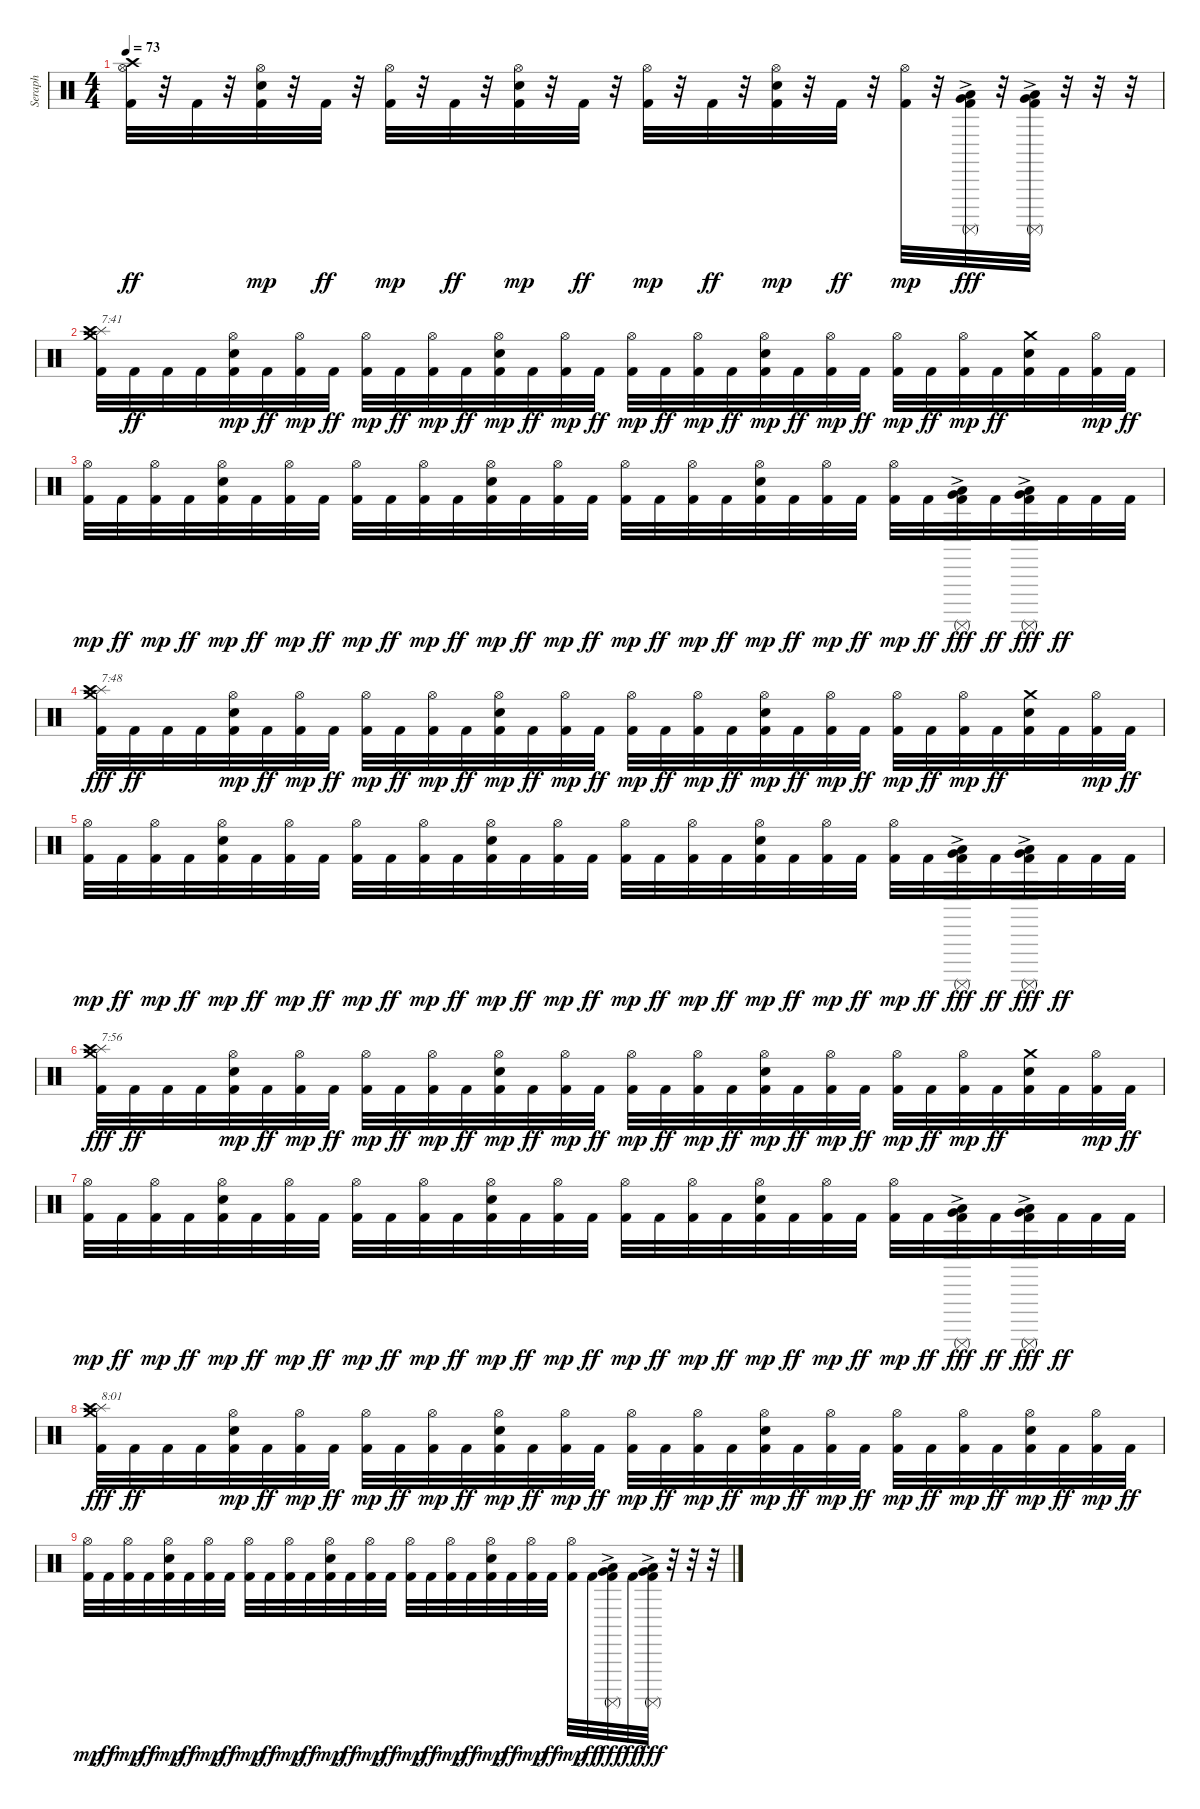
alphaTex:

\track ("Seraph" "Seraph") {instrument percussion}
\staff {score}
\articulation defaults
\ts (4 4)
\tempo 73
\clef neutral
\ks c
("Kick (hit) 2" "Hi-Hat (open)" "Crash high (hit)").32{dy ff} r.32 "Kick (hit) 2".32 r.32 ("Kick (hit) 2" "Electric Snare (hit)" "Hi-Hat (open)").32{dy mp} r.32 "Kick (hit) 2".32{dy ff} r.32 ("Kick (hit) 2" "Hi-Hat (open)").32{dy mp} r.32 "Kick (hit) 2".32{dy ff} r.32 ("Kick (hit) 2" "Electric Snare (hit)" "Hi-Hat (open)").32{dy mp} r.32 "Kick (hit) 2".32{dy ff} r.32 ("Kick (hit) 2" "Hi-Hat (open)").32{dy mp} r.32 "Kick (hit) 2".32{dy ff} r.32 ("Kick (hit) 2" "Electric Snare (hit)" "Hi-Hat (open)").32{dy mp} r.32 "Kick (hit) 2".32{dy ff} r.32 ("Kick (hit) 2" "Hi-Hat (open)").32{dy mp} r.32 ("Kick (hit) 2"{ac} "Surdo (mute)" "Low Tom (hit)"{ac} "Very Low Tom (hit)"{ac}).32{dy fff} r.32 ("Kick (hit) 2"{ac} "Surdo (mute)" "Low Tom (hit)"{ac} "Very Low Tom (hit)"{ac}).32 r.32 r.32 r.32 |
("Kick (hit) 2" "Splash (hit)" "Crash high (hit)" "Crash medium (hit)").32{txt "7:41"} "Kick (hit) 2".32{dy ff} "Kick (hit) 2".32 "Kick (hit) 2".32 ("Kick (hit) 2" "Electric Snare (hit)" "Hi-Hat (open)").32{dy mp} "Kick (hit) 2".32{dy ff} ("Kick (hit) 2" "Hi-Hat (open)").32{dy mp} "Kick (hit) 2".32{dy ff} ("Kick (hit) 2" "Hi-Hat (open)").32{dy mp} "Kick (hit) 2".32{dy ff} ("Kick (hit) 2" "Hi-Hat (open)").32{dy mp} "Kick (hit) 2".32{dy ff} ("Kick (hit) 2" "Electric Snare (hit)" "Hi-Hat (open)").32{dy mp} "Kick (hit) 2".32{dy ff} ("Kick (hit) 2" "Hi-Hat (open)").32{dy mp} "Kick (hit) 2".32{dy ff} ("Kick (hit) 2" "Hi-Hat (open)").32{dy mp} "Kick (hit) 2".32{dy ff} ("Kick (hit) 2" "Hi-Hat (open)").32{dy mp} "Kick (hit) 2".32{dy ff} ("Kick (hit) 2" "Electric Snare (hit)" "Hi-Hat (open)").32{dy mp} "Kick (hit) 2".32{dy ff} ("Kick (hit) 2" "Hi-Hat (open)").32{dy mp} "Kick (hit) 2".32{dy ff} ("Kick (hit) 2" "Hi-Hat (open)").32{dy mp} "Kick (hit) 2".32{dy ff} ("Kick (hit) 2" "Hi-Hat (open)").32{dy mp} "Kick (hit) 2".32{dy ff} ("Kick (hit) 2" "Electric Snare (hit)" "Crash medium (hit)").32 "Kick (hit) 2".32 ("Kick (hit) 2" "Hi-Hat (open)").32{dy mp} "Kick (hit) 2".32{dy ff} |
("Kick (hit) 2" "Hi-Hat (open)").32{dy mp} "Kick (hit) 2".32{dy ff} ("Kick (hit) 2" "Hi-Hat (open)").32{dy mp} "Kick (hit) 2".32{dy ff} ("Kick (hit) 2" "Electric Snare (hit)" "Hi-Hat (open)").32{dy mp} "Kick (hit) 2".32{dy ff} ("Kick (hit) 2" "Hi-Hat (open)").32{dy mp} "Kick (hit) 2".32{dy ff} ("Kick (hit) 2" "Hi-Hat (open)").32{dy mp} "Kick (hit) 2".32{dy ff} ("Kick (hit) 2" "Hi-Hat (open)").32{dy mp} "Kick (hit) 2".32{dy ff} ("Kick (hit) 2" "Electric Snare (hit)" "Hi-Hat (open)").32{dy mp} "Kick (hit) 2".32{dy ff} ("Kick (hit) 2" "Hi-Hat (open)").32{dy mp} "Kick (hit) 2".32{dy ff} ("Kick (hit) 2" "Hi-Hat (open)").32{dy mp} "Kick (hit) 2".32{dy ff} ("Kick (hit) 2" "Hi-Hat (open)").32{dy mp} "Kick (hit) 2".32{dy ff} ("Kick (hit) 2" "Electric Snare (hit)" "Hi-Hat (open)").32{dy mp} "Kick (hit) 2".32{dy ff} ("Kick (hit) 2" "Hi-Hat (open)").32{dy mp} "Kick (hit) 2".32{dy ff} ("Kick (hit) 2" "Hi-Hat (open)").32{dy mp} "Kick (hit) 2".32{dy ff} ("Kick (hit) 2"{ac} "Surdo (mute)" "Low Tom (hit)"{ac} "Very Low Tom (hit)"{ac}).32{dy fff} "Kick (hit) 2".32{dy ff} ("Kick (hit) 2"{ac} "Surdo (mute)" "Low Tom (hit)"{ac} "Very Low Tom (hit)"{ac}).32{dy fff} "Kick (hit) 2".32{dy ff} "Kick (hit) 2".32 "Kick (hit) 2".32 |
("Kick (hit) 2" "Splash (hit)" "Crash high (hit)" "Crash medium (hit)").32{txt "7:48" dy fff} "Kick (hit) 2".32{dy ff} "Kick (hit) 2".32 "Kick (hit) 2".32 ("Kick (hit) 2" "Electric Snare (hit)" "Hi-Hat (open)").32{dy mp} "Kick (hit) 2".32{dy ff} ("Kick (hit) 2" "Hi-Hat (open)").32{dy mp} "Kick (hit) 2".32{dy ff} ("Kick (hit) 2" "Hi-Hat (open)").32{dy mp} "Kick (hit) 2".32{dy ff} ("Kick (hit) 2" "Hi-Hat (open)").32{dy mp} "Kick (hit) 2".32{dy ff} ("Kick (hit) 2" "Electric Snare (hit)" "Hi-Hat (open)").32{dy mp} "Kick (hit) 2".32{dy ff} ("Kick (hit) 2" "Hi-Hat (open)").32{dy mp} "Kick (hit) 2".32{dy ff} ("Kick (hit) 2" "Hi-Hat (open)").32{dy mp} "Kick (hit) 2".32{dy ff} ("Kick (hit) 2" "Hi-Hat (open)").32{dy mp} "Kick (hit) 2".32{dy ff} ("Kick (hit) 2" "Electric Snare (hit)" "Hi-Hat (open)").32{dy mp} "Kick (hit) 2".32{dy ff} ("Kick (hit) 2" "Hi-Hat (open)").32{dy mp} "Kick (hit) 2".32{dy ff} ("Kick (hit) 2" "Hi-Hat (open)").32{dy mp} "Kick (hit) 2".32{dy ff} ("Kick (hit) 2" "Hi-Hat (open)").32{dy mp} "Kick (hit) 2".32{dy ff} ("Kick (hit) 2" "Electric Snare (hit)" "Crash medium (hit)").32 "Kick (hit) 2".32 ("Kick (hit) 2" "Hi-Hat (open)").32{dy mp} "Kick (hit) 2".32{dy ff} |
("Kick (hit) 2" "Hi-Hat (open)").32{dy mp} "Kick (hit) 2".32{dy ff} ("Kick (hit) 2" "Hi-Hat (open)").32{dy mp} "Kick (hit) 2".32{dy ff} ("Kick (hit) 2" "Electric Snare (hit)" "Hi-Hat (open)").32{dy mp} "Kick (hit) 2".32{dy ff} ("Kick (hit) 2" "Hi-Hat (open)").32{dy mp} "Kick (hit) 2".32{dy ff} ("Kick (hit) 2" "Hi-Hat (open)").32{dy mp} "Kick (hit) 2".32{dy ff} ("Kick (hit) 2" "Hi-Hat (open)").32{dy mp} "Kick (hit) 2".32{dy ff} ("Kick (hit) 2" "Electric Snare (hit)" "Hi-Hat (open)").32{dy mp} "Kick (hit) 2".32{dy ff} ("Kick (hit) 2" "Hi-Hat (open)").32{dy mp} "Kick (hit) 2".32{dy ff} ("Kick (hit) 2" "Hi-Hat (open)").32{dy mp} "Kick (hit) 2".32{dy ff} ("Kick (hit) 2" "Hi-Hat (open)").32{dy mp} "Kick (hit) 2".32{dy ff} ("Kick (hit) 2" "Electric Snare (hit)" "Hi-Hat (open)").32{dy mp} "Kick (hit) 2".32{dy ff} ("Kick (hit) 2" "Hi-Hat (open)").32{dy mp} "Kick (hit) 2".32{dy ff} ("Kick (hit) 2" "Hi-Hat (open)").32{dy mp} "Kick (hit) 2".32{dy ff} ("Kick (hit) 2"{ac} "Surdo (mute)" "Low Tom (hit)"{ac} "Very Low Tom (hit)"{ac}).32{dy fff} "Kick (hit) 2".32{dy ff} ("Kick (hit) 2"{ac} "Surdo (mute)" "Low Tom (hit)"{ac} "Very Low Tom (hit)"{ac}).32{dy fff} "Kick (hit) 2".32{dy ff} "Kick (hit) 2".32 "Kick (hit) 2".32 |
("Kick (hit) 2" "Splash (hit)" "Crash high (hit)" "Crash medium (hit)").32{txt "7:56" dy fff} "Kick (hit) 2".32{dy ff} "Kick (hit) 2".32 "Kick (hit) 2".32 ("Kick (hit) 2" "Electric Snare (hit)" "Hi-Hat (open)").32{dy mp} "Kick (hit) 2".32{dy ff} ("Kick (hit) 2" "Hi-Hat (open)").32{dy mp} "Kick (hit) 2".32{dy ff} ("Kick (hit) 2" "Hi-Hat (open)").32{dy mp} "Kick (hit) 2".32{dy ff} ("Kick (hit) 2" "Hi-Hat (open)").32{dy mp} "Kick (hit) 2".32{dy ff} ("Kick (hit) 2" "Electric Snare (hit)" "Hi-Hat (open)").32{dy mp} "Kick (hit) 2".32{dy ff} ("Kick (hit) 2" "Hi-Hat (open)").32{dy mp} "Kick (hit) 2".32{dy ff} ("Kick (hit) 2" "Hi-Hat (open)").32{dy mp} "Kick (hit) 2".32{dy ff} ("Kick (hit) 2" "Hi-Hat (open)").32{dy mp} "Kick (hit) 2".32{dy ff} ("Kick (hit) 2" "Electric Snare (hit)" "Hi-Hat (open)").32{dy mp} "Kick (hit) 2".32{dy ff} ("Kick (hit) 2" "Hi-Hat (open)").32{dy mp} "Kick (hit) 2".32{dy ff} ("Kick (hit) 2" "Hi-Hat (open)").32{dy mp} "Kick (hit) 2".32{dy ff} ("Kick (hit) 2" "Hi-Hat (open)").32{dy mp} "Kick (hit) 2".32{dy ff} ("Kick (hit) 2" "Electric Snare (hit)" "Crash medium (hit)").32 "Kick (hit) 2".32 ("Kick (hit) 2" "Hi-Hat (open)").32{dy mp} "Kick (hit) 2".32{dy ff} |
("Kick (hit) 2" "Hi-Hat (open)").32{dy mp} "Kick (hit) 2".32{dy ff} ("Kick (hit) 2" "Hi-Hat (open)").32{dy mp} "Kick (hit) 2".32{dy ff} ("Kick (hit) 2" "Electric Snare (hit)" "Hi-Hat (open)").32{dy mp} "Kick (hit) 2".32{dy ff} ("Kick (hit) 2" "Hi-Hat (open)").32{dy mp} "Kick (hit) 2".32{dy ff} ("Kick (hit) 2" "Hi-Hat (open)").32{dy mp} "Kick (hit) 2".32{dy ff} ("Kick (hit) 2" "Hi-Hat (open)").32{dy mp} "Kick (hit) 2".32{dy ff} ("Kick (hit) 2" "Electric Snare (hit)" "Hi-Hat (open)").32{dy mp} "Kick (hit) 2".32{dy ff} ("Kick (hit) 2" "Hi-Hat (open)").32{dy mp} "Kick (hit) 2".32{dy ff} ("Kick (hit) 2" "Hi-Hat (open)").32{dy mp} "Kick (hit) 2".32{dy ff} ("Kick (hit) 2" "Hi-Hat (open)").32{dy mp} "Kick (hit) 2".32{dy ff} ("Kick (hit) 2" "Electric Snare (hit)" "Hi-Hat (open)").32{dy mp} "Kick (hit) 2".32{dy ff} ("Kick (hit) 2" "Hi-Hat (open)").32{dy mp} "Kick (hit) 2".32{dy ff} ("Kick (hit) 2" "Hi-Hat (open)").32{dy mp} "Kick (hit) 2".32{dy ff} ("Kick (hit) 2"{ac} "Surdo (mute)" "Low Tom (hit)"{ac} "Very Low Tom (hit)"{ac}).32{dy fff} "Kick (hit) 2".32{dy ff} ("Kick (hit) 2"{ac} "Surdo (mute)" "Low Tom (hit)"{ac} "Very Low Tom (hit)"{ac}).32{dy fff} "Kick (hit) 2".32{dy ff} "Kick (hit) 2".32 "Kick (hit) 2".32 |
("Kick (hit) 2" "Splash (hit)" "Crash high (hit)" "Crash medium (hit)").32{txt "8:01" dy fff} "Kick (hit) 2".32{dy ff} "Kick (hit) 2".32 "Kick (hit) 2".32 ("Kick (hit) 2" "Electric Snare (hit)" "Hi-Hat (open)").32{dy mp} "Kick (hit) 2".32{dy ff} ("Kick (hit) 2" "Hi-Hat (open)").32{dy mp} "Kick (hit) 2".32{dy ff} ("Kick (hit) 2" "Hi-Hat (open)").32{dy mp} "Kick (hit) 2".32{dy ff} ("Kick (hit) 2" "Hi-Hat (open)").32{dy mp} "Kick (hit) 2".32{dy ff} ("Kick (hit) 2" "Electric Snare (hit)" "Hi-Hat (open)").32{dy mp} "Kick (hit) 2".32{dy ff} ("Kick (hit) 2" "Hi-Hat (open)").32{dy mp} "Kick (hit) 2".32{dy ff} ("Kick (hit) 2" "Hi-Hat (open)").32{dy mp} "Kick (hit) 2".32{dy ff} ("Kick (hit) 2" "Hi-Hat (open)").32{dy mp} "Kick (hit) 2".32{dy ff} ("Kick (hit) 2" "Electric Snare (hit)" "Hi-Hat (open)").32{dy mp} "Kick (hit) 2".32{dy ff} ("Kick (hit) 2" "Hi-Hat (open)").32{dy mp} "Kick (hit) 2".32{dy ff} ("Kick (hit) 2" "Hi-Hat (open)").32{dy mp} "Kick (hit) 2".32{dy ff} ("Kick (hit) 2" "Hi-Hat (open)").32{dy mp} "Kick (hit) 2".32{dy ff} ("Kick (hit) 2" "Electric Snare (hit)" "Hi-Hat (open)").32{dy mp} "Kick (hit) 2".32{dy ff} ("Kick (hit) 2" "Hi-Hat (open)").32{dy mp} "Kick (hit) 2".32{dy ff} |
("Kick (hit) 2" "Hi-Hat (open)").32{dy mp} "Kick (hit) 2".32{dy ff} ("Kick (hit) 2" "Hi-Hat (open)").32{dy mp} "Kick (hit) 2".32{dy ff} ("Kick (hit) 2" "Electric Snare (hit)" "Hi-Hat (open)").32{dy mp} "Kick (hit) 2".32{dy ff} ("Kick (hit) 2" "Hi-Hat (open)").32{dy mp} "Kick (hit) 2".32{dy ff} ("Kick (hit) 2" "Hi-Hat (open)").32{dy mp} "Kick (hit) 2".32{dy ff} ("Kick (hit) 2" "Hi-Hat (open)").32{dy mp} "Kick (hit) 2".32{dy ff} ("Kick (hit) 2" "Electric Snare (hit)" "Hi-Hat (open)").32{dy mp} "Kick (hit) 2".32{dy ff} ("Kick (hit) 2" "Hi-Hat (open)").32{dy mp} "Kick (hit) 2".32{dy ff} ("Kick (hit) 2" "Hi-Hat (open)").32{dy mp} "Kick (hit) 2".32{dy ff} ("Kick (hit) 2" "Hi-Hat (open)").32{dy mp} "Kick (hit) 2".32{dy ff} ("Kick (hit) 2" "Electric Snare (hit)" "Hi-Hat (open)").32{dy mp} "Kick (hit) 2".32{dy ff} ("Kick (hit) 2" "Hi-Hat (open)").32{dy mp} "Kick (hit) 2".32{dy ff} ("Kick (hit) 2" "Hi-Hat (open)").32{dy mp} "Kick (hit) 2".32{dy ff} ("Kick (hit) 2"{ac} "Surdo (mute)" "Low Tom (hit)"{ac} "Very Low Tom (hit)"{ac}).32{dy fff} "Kick (hit) 2".32{dy ff} ("Kick (hit) 2"{ac} "Surdo (mute)" "Low Tom (hit)"{ac} "Very Low Tom (hit)"{ac}).32{dy fff} r.32 r.32 r.32
